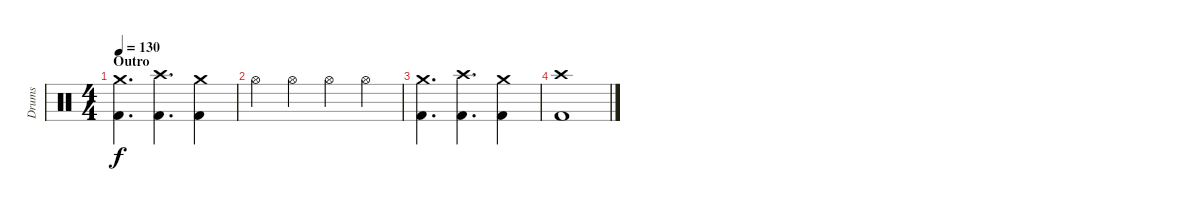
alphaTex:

\track ("Drums" "Drums") {instrument percussion}
\staff {score}
\articulation defaults
\ts (4 4)
\section ("" "Outro")
\tempo 130
\clef neutral
\ks c
("Crash medium (hit)" "Kick (hit) 2").4{d dy f} ("Crash high (hit)" "Kick (hit) 2").4{d} ("Crash medium (hit)" "Kick (hit) 2").4 |
"Hi-Hat (open)".4 "Hi-Hat (open)".4 "Hi-Hat (open)".4 "Hi-Hat (open)".4 |
("Crash medium (hit)" "Kick (hit) 2").4{d} ("Crash high (hit)" "Kick (hit) 2").4{d} ("Crash medium (hit)" "Kick (hit) 2").4 |
("Crash high (hit)" "Kick (hit) 2").1
